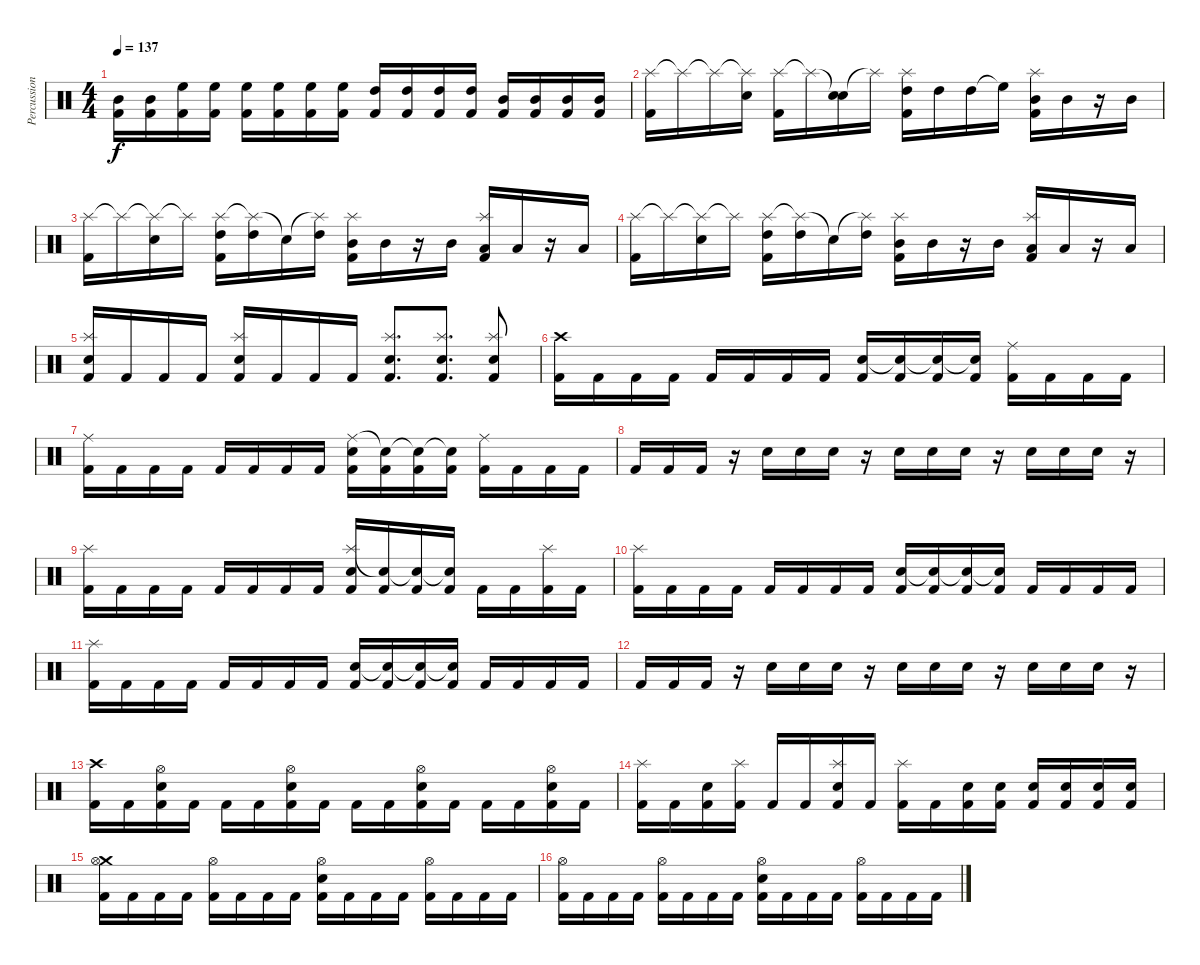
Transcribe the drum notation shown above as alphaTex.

\track ("Percussion" "Percussion") {instrument percussion}
\staff {score}
\articulation defaults
\ts (4 4)
\tempo 137
\clef neutral
\ks c
("Mid Tom (hit)" "Kick (hit) 2").16{dy f} ("Mid Tom (hit)" "Kick (hit) 2").16 ("High Floor Tom (hit)" "Kick (hit) 2").16 ("High Floor Tom (hit)" "Kick (hit) 2").16 ("High Floor Tom (hit)" "Kick (hit) 2").16 ("High Floor Tom (hit)" "Kick (hit) 2").16 ("High Floor Tom (hit)" "Kick (hit) 2").16 ("High Floor Tom (hit)" "Kick (hit) 2").16 ("High Tom (hit)" "Kick (hit) 2").16 ("High Tom (hit)" "Kick (hit) 2").16 ("High Tom (hit)" "Kick (hit) 2").16 ("High Tom (hit)" "Kick (hit) 2").16 ("Mid Tom (hit)" "Kick (hit) 2").16 ("Mid Tom (hit)" "Kick (hit) 2").16 ("Mid Tom (hit)" "Kick (hit) 2").16 ("Mid Tom (hit)" "Kick (hit) 2").16 |
("Splash (hit)" "Kick (hit) 2").16 "Splash (hit)"{t}.16 "Splash (hit)"{t}.16 ("Splash (hit)"{t} "Electric Snare (hit)").16 ("Splash (hit)" "Kick (hit) 2").16 "Splash (hit)"{t}.16 ("Snare (hit)"{t} "Electric Snare (hit)").16 "Splash (hit)"{t}.16 ("Splash (hit)" "High Tom (hit)" "Kick (hit) 2").16 "High Tom (hit)".16 "High Tom (hit)".16 "High Floor Tom (hit)"{t}.16 ("Splash (hit)" "Mid Tom (hit)" "Kick (hit) 2").16 "Mid Tom (hit)".16 r.16 "Mid Tom (hit)".16 |
("Splash (hit)" "Kick (hit) 2").16 "Splash (hit)"{t}.16 ("Splash (hit)"{t} "Electric Snare (hit)").16 "Splash (hit)"{t}.16 ("Splash (hit)" "High Tom (hit)" "Kick (hit) 2").16 ("Splash (hit)"{t} "High Tom (hit)").16 "Snare (hit)"{t}.16 ("Splash (hit)"{t} "High Tom (hit)").16 ("Splash (hit)" "Mid Tom (hit)" "Kick (hit) 2").16 "Mid Tom (hit)".16 r.16 "Mid Tom (hit)".16 ("Splash (hit)" "Low Tom (hit)" "Kick (hit) 2").16 "Low Tom (hit)".16 r.16 "Low Tom (hit)".16 |
("Splash (hit)" "Kick (hit) 2").16 "Splash (hit)"{t}.16 ("Splash (hit)"{t} "Electric Snare (hit)").16 "Splash (hit)"{t}.16 ("Splash (hit)" "High Tom (hit)" "Kick (hit) 2").16 ("Splash (hit)"{t} "High Tom (hit)").16 "Snare (hit)"{t}.16 ("Splash (hit)"{t} "High Tom (hit)").16 ("Splash (hit)" "Mid Tom (hit)" "Kick (hit) 2").16 "Mid Tom (hit)".16 r.16 "Mid Tom (hit)".16 ("Splash (hit)" "Low Tom (hit)" "Kick (hit) 2").16 "Low Tom (hit)".16 r.16 "Low Tom (hit)".16 |
("Splash (hit)" "Electric Snare (hit)" "Kick (hit) 2").16 "Kick (hit) 2".16 "Kick (hit) 2".16 "Kick (hit) 2".16 ("Splash (hit)" "Electric Snare (hit)" "Kick (hit) 2").16 "Kick (hit) 2".16 "Kick (hit) 2".16 "Kick (hit) 2".16 ("Splash (hit)" "Electric Snare (hit)" "Kick (hit) 2").8{d} ("Splash (hit)" "Electric Snare (hit)" "Kick (hit) 2").8{d} ("Splash (hit)" "Electric Snare (hit)" "Kick (hit) 2").8 |
("Crash high (hit)" "Kick (hit) 2").16 "Kick (hit) 2".16 "Kick (hit) 2".16 "Kick (hit) 2".16 "Kick (hit) 2".16 "Kick (hit) 2".16 "Kick (hit) 2".16 "Kick (hit) 2".16 ("Electric Snare (hit)" "Kick (hit) 2").16 ("Electric Snare (hit)"{t} "Kick (hit) 2").16 ("Electric Snare (hit)"{t} "Kick (hit) 2").16 ("Electric Snare (hit)"{t} "Kick (hit) 2").16 ("Ride (middle)" "Kick (hit) 2").16 "Kick (hit) 2".16 "Kick (hit) 2".16 "Kick (hit) 2".16 |
("Ride (middle)" "Kick (hit) 2").16 "Kick (hit) 2".16 "Kick (hit) 2".16 "Kick (hit) 2".16 "Kick (hit) 2".16 "Kick (hit) 2".16 "Kick (hit) 2".16 "Kick (hit) 2".16 ("Ride (middle)" "Electric Snare (hit)" "Kick (hit) 2").16 ("Electric Snare (hit)"{t} "Kick (hit) 2").16 ("Electric Snare (hit)"{t} "Kick (hit) 2").16 ("Electric Snare (hit)"{t} "Kick (hit) 2").16 ("Ride (middle)" "Kick (hit) 2").16 "Kick (hit) 2".16 "Kick (hit) 2".16 "Kick (hit) 2".16 |
"Kick (hit) 2".16 "Kick (hit) 2".16 "Kick (hit) 2".16 r.16 "Electric Snare (hit)".16 "Electric Snare (hit)".16 "Electric Snare (hit)".16 r.16 "Electric Snare (hit)".16 "Electric Snare (hit)".16 "Electric Snare (hit)".16 r.16 "Electric Snare (hit)".16 "Electric Snare (hit)".16 "Electric Snare (hit)".16 r.16 |
("Splash (hit)" "Kick (hit) 2").16 "Kick (hit) 2".16 "Kick (hit) 2".16 "Kick (hit) 2".16 "Kick (hit) 2".16 "Kick (hit) 2".16 "Kick (hit) 2".16 "Kick (hit) 2".16 ("Splash (hit)" "Electric Snare (hit)" "Kick (hit) 2").16 ("Electric Snare (hit)"{t} "Kick (hit) 2").16 ("Electric Snare (hit)"{t} "Kick (hit) 2").16 ("Electric Snare (hit)"{t} "Kick (hit) 2").16 "Kick (hit) 2".16 "Kick (hit) 2".16 ("Splash (hit)" "Kick (hit) 2").16 "Kick (hit) 2".16 |
("Splash (hit)" "Kick (hit) 2").16 "Kick (hit) 2".16 "Kick (hit) 2".16 "Kick (hit) 2".16 "Kick (hit) 2".16 "Kick (hit) 2".16 "Kick (hit) 2".16 "Kick (hit) 2".16 ("Electric Snare (hit)" "Kick (hit) 2").16 ("Electric Snare (hit)"{t} "Kick (hit) 2").16 ("Electric Snare (hit)"{t} "Kick (hit) 2").16 ("Electric Snare (hit)"{t} "Kick (hit) 2").16 "Kick (hit) 2".16 "Kick (hit) 2".16 "Kick (hit) 2".16 "Kick (hit) 2".16 |
("Splash (hit)" "Kick (hit) 2").16 "Kick (hit) 2".16 "Kick (hit) 2".16 "Kick (hit) 2".16 "Kick (hit) 2".16 "Kick (hit) 2".16 "Kick (hit) 2".16 "Kick (hit) 2".16 ("Electric Snare (hit)" "Kick (hit) 2").16 ("Electric Snare (hit)"{t} "Kick (hit) 2").16 ("Electric Snare (hit)"{t} "Kick (hit) 2").16 ("Electric Snare (hit)"{t} "Kick (hit) 2").16 "Kick (hit) 2".16 "Kick (hit) 2".16 "Kick (hit) 2".16 "Kick (hit) 2".16 |
"Kick (hit) 2".16 "Kick (hit) 2".16 "Kick (hit) 2".16 r.16 "Electric Snare (hit)".16 "Electric Snare (hit)".16 "Electric Snare (hit)".16 r.16 "Electric Snare (hit)".16 "Electric Snare (hit)".16 "Electric Snare (hit)".16 r.16 "Electric Snare (hit)".16 "Electric Snare (hit)".16 "Electric Snare (hit)".16 r.16 |
("Crash high (hit)" "Kick (hit) 2").16 "Kick (hit) 2".16 ("Hi-Hat (open)" "Electric Snare (hit)" "Kick (hit) 2").16 "Kick (hit) 2".16 "Kick (hit) 2".16 "Kick (hit) 2".16 ("Hi-Hat (open)" "Electric Snare (hit)" "Kick (hit) 2").16 "Kick (hit) 2".16 "Kick (hit) 2".16 "Kick (hit) 2".16 ("Hi-Hat (open)" "Electric Snare (hit)" "Kick (hit) 2").16 "Kick (hit) 2".16 "Kick (hit) 2".16 "Kick (hit) 2".16 ("Hi-Hat (open)" "Electric Snare (hit)" "Kick (hit) 2").16 "Kick (hit) 2".16 |
("Splash (hit)" "Kick (hit) 2").16 "Kick (hit) 2".16 ("Electric Snare (hit)" "Kick (hit) 2").16 ("Splash (hit)" "Kick (hit) 2").16 "Kick (hit) 2".16 "Kick (hit) 2".16 ("Splash (hit)" "Electric Snare (hit)" "Kick (hit) 2").16 "Kick (hit) 2".16 ("Splash (hit)" "Kick (hit) 2").16 "Kick (hit) 2".16 ("Electric Snare (hit)" "Kick (hit) 2").16 ("Electric Snare (hit)" "Kick (hit) 2").16 ("Electric Snare (hit)" "Kick (hit) 2").16 ("Electric Snare (hit)" "Kick (hit) 2").16 ("Electric Snare (hit)" "Kick (hit) 2").16 ("Electric Snare (hit)" "Kick (hit) 2").16 |
("Crash medium (hit)" "Hi-Hat (open)" "Kick (hit) 2").16 "Kick (hit) 2".16 "Kick (hit) 2".16 "Kick (hit) 2".16 ("Hi-Hat (open)" "Kick (hit) 2").16 "Kick (hit) 2".16 "Kick (hit) 2".16 "Kick (hit) 2".16 ("Hi-Hat (open)" "Electric Snare (hit)" "Kick (hit) 2").16 "Kick (hit) 2".16 "Kick (hit) 2".16 "Kick (hit) 2".16 ("Hi-Hat (open)" "Kick (hit) 2").16 "Kick (hit) 2".16 "Kick (hit) 2".16 "Kick (hit) 2".16 |
("Hi-Hat (open)" "Kick (hit) 2").16 "Kick (hit) 2".16 "Kick (hit) 2".16 "Kick (hit) 2".16 ("Hi-Hat (open)" "Kick (hit) 2").16 "Kick (hit) 2".16 "Kick (hit) 2".16 "Kick (hit) 2".16 ("Hi-Hat (open)" "Electric Snare (hit)" "Kick (hit) 2").16 "Kick (hit) 2".16 "Kick (hit) 2".16 "Kick (hit) 2".16 ("Hi-Hat (open)" "Kick (hit) 2").16 "Kick (hit) 2".16 "Kick (hit) 2".16 "Kick (hit) 2".16
